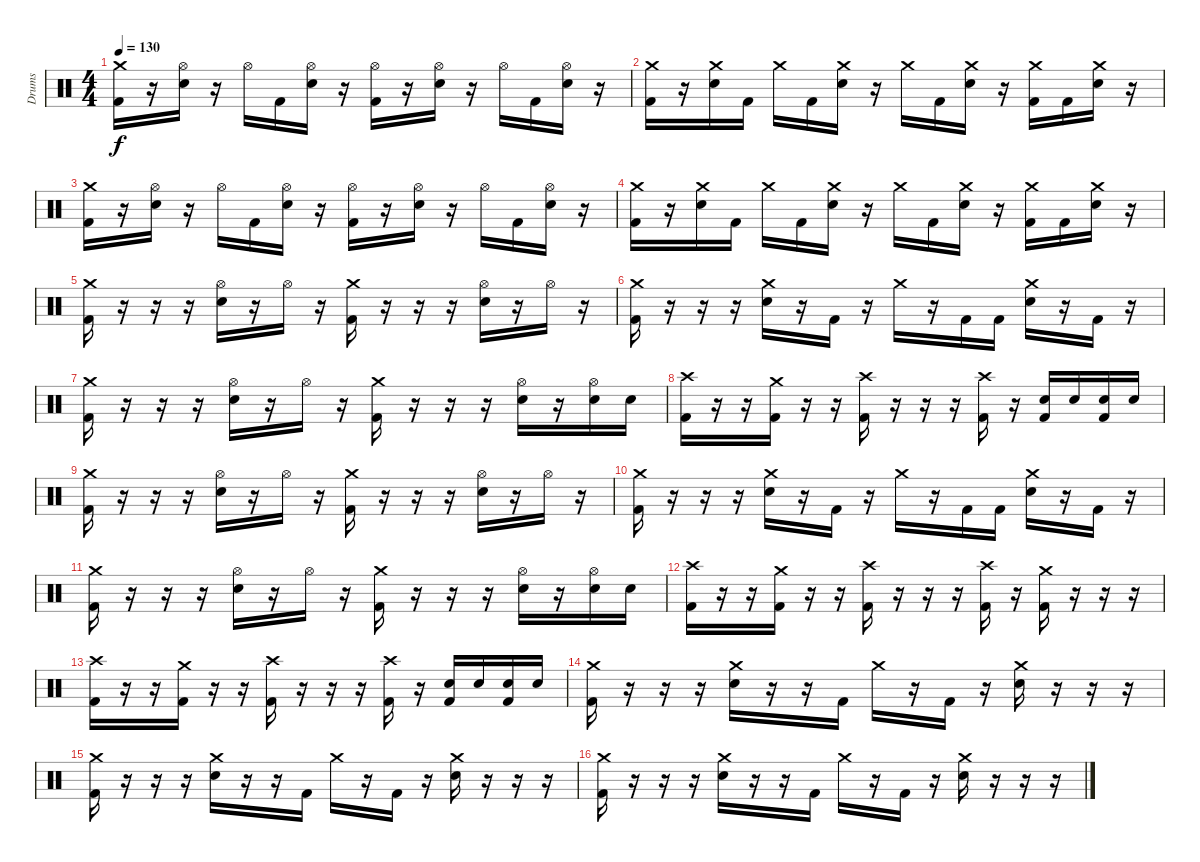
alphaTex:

\track ("Drums" "Drums") {instrument percussion}
\staff {score}
\articulation defaults
\ts (4 4)
\tempo 130
\clef neutral
\ks c
("Crash medium (hit)" "Kick (hit) 2").16{dy f} r.16 ("Hi-Hat (open)" "Electric Snare (hit)").16 r.16 "Hi-Hat (open)".16 "Kick (hit) 2".16 ("Hi-Hat (open)" "Electric Snare (hit)").16 r.16 ("Hi-Hat (open)" "Kick (hit) 2").16 r.16 ("Hi-Hat (open)" "Electric Snare (hit)").16 r.16 "Hi-Hat (open)".16 "Kick (hit) 2".16 ("Hi-Hat (open)" "Electric Snare (hit)").16 r.16 |
("Crash medium (hit)" "Kick (hit) 2").16 r.16 ("Crash medium (hit)" "Electric Snare (hit)").16 "Kick (hit) 2".16 "Crash medium (hit)".16 "Kick (hit) 2".16 ("Crash medium (hit)" "Electric Snare (hit)").16 r.16 "Crash medium (hit)".16 "Kick (hit) 2".16 ("Crash medium (hit)" "Electric Snare (hit)").16 r.16 ("Crash medium (hit)" "Kick (hit) 2").16 "Kick (hit) 2".16 ("Crash medium (hit)" "Electric Snare (hit)").16 r.16 |
("Crash medium (hit)" "Kick (hit) 2").16 r.16 ("Hi-Hat (open)" "Electric Snare (hit)").16 r.16 "Hi-Hat (open)".16 "Kick (hit) 2".16 ("Hi-Hat (open)" "Electric Snare (hit)").16 r.16 ("Hi-Hat (open)" "Kick (hit) 2").16 r.16 ("Hi-Hat (open)" "Electric Snare (hit)").16 r.16 "Hi-Hat (open)".16 "Kick (hit) 2".16 ("Hi-Hat (open)" "Electric Snare (hit)").16 r.16 |
("Crash medium (hit)" "Kick (hit) 2").16 r.16 ("Crash medium (hit)" "Electric Snare (hit)").16 "Kick (hit) 2".16 "Crash medium (hit)".16 "Kick (hit) 2".16 ("Crash medium (hit)" "Electric Snare (hit)").16 r.16 "Crash medium (hit)".16 "Kick (hit) 2".16 ("Crash medium (hit)" "Electric Snare (hit)").16 r.16 ("Crash medium (hit)" "Kick (hit) 2").16 "Kick (hit) 2".16 ("Crash medium (hit)" "Electric Snare (hit)").16 r.16 |
("Crash medium (hit)" "Kick (hit) 2").16 r.16 r.16 r.16 ("Hi-Hat (open)" "Electric Snare (hit)").16 r.16 "Hi-Hat (open)".16 r.16 ("Crash medium (hit)" "Kick (hit) 2").16 r.16 r.16 r.16 ("Hi-Hat (open)" "Electric Snare (hit)").16 r.16 "Hi-Hat (open)".16 r.16 |
("Crash medium (hit)" "Kick (hit) 2").16 r.16 r.16 r.16 ("Crash medium (hit)" "Electric Snare (hit)").16 r.16 "Kick (hit) 2".16 r.16 "Crash medium (hit)".16 r.16 "Kick (hit) 2".16 "Kick (hit) 2".16 ("Crash medium (hit)" "Electric Snare (hit)").16 r.16 "Kick (hit) 2".16 r.16 |
("Crash medium (hit)" "Kick (hit) 2").16 r.16 r.16 r.16 ("Hi-Hat (open)" "Electric Snare (hit)").16 r.16 "Hi-Hat (open)".16 r.16 ("Crash medium (hit)" "Kick (hit) 2").16 r.16 r.16 r.16 ("Hi-Hat (open)" "Electric Snare (hit)").16 r.16 ("Hi-Hat (open)" "Electric Snare (hit)").16 "Electric Snare (hit)".16 |
("Crash high (hit)" "Kick (hit) 2").16 r.16 r.16 ("Crash medium (hit)" "Kick (hit) 2").16 r.16 r.16 ("Crash high (hit)" "Kick (hit) 2").16 r.16 r.16 r.16 ("Crash high (hit)" "Kick (hit) 2").16 r.16 ("Electric Snare (hit)" "Kick (hit) 2").16 "Electric Snare (hit)".16 ("Electric Snare (hit)" "Kick (hit) 2").16 "Electric Snare (hit)".16 |
("Crash medium (hit)" "Kick (hit) 2").16 r.16 r.16 r.16 ("Hi-Hat (open)" "Electric Snare (hit)").16 r.16 "Hi-Hat (open)".16 r.16 ("Crash medium (hit)" "Kick (hit) 2").16 r.16 r.16 r.16 ("Hi-Hat (open)" "Electric Snare (hit)").16 r.16 "Hi-Hat (open)".16 r.16 |
("Crash medium (hit)" "Kick (hit) 2").16 r.16 r.16 r.16 ("Crash medium (hit)" "Electric Snare (hit)").16 r.16 "Kick (hit) 2".16 r.16 "Crash medium (hit)".16 r.16 "Kick (hit) 2".16 "Kick (hit) 2".16 ("Crash medium (hit)" "Electric Snare (hit)").16 r.16 "Kick (hit) 2".16 r.16 |
("Crash medium (hit)" "Kick (hit) 2").16 r.16 r.16 r.16 ("Hi-Hat (open)" "Electric Snare (hit)").16 r.16 "Hi-Hat (open)".16 r.16 ("Crash medium (hit)" "Kick (hit) 2").16 r.16 r.16 r.16 ("Hi-Hat (open)" "Electric Snare (hit)").16 r.16 ("Hi-Hat (open)" "Electric Snare (hit)").16 "Electric Snare (hit)".16 |
("Crash high (hit)" "Kick (hit) 2").16 r.16 r.16 ("Crash medium (hit)" "Kick (hit) 2").16 r.16 r.16 ("Crash high (hit)" "Kick (hit) 2").16 r.16 r.16 r.16 ("Crash high (hit)" "Kick (hit) 2").16 r.16 ("Crash medium (hit)" "Kick (hit) 2").16 r.16 r.16 r.16 |
("Crash high (hit)" "Kick (hit) 2").16 r.16 r.16 ("Crash medium (hit)" "Kick (hit) 2").16 r.16 r.16 ("Crash high (hit)" "Kick (hit) 2").16 r.16 r.16 r.16 ("Crash high (hit)" "Kick (hit) 2").16 r.16 ("Electric Snare (hit)" "Kick (hit) 2").16 "Electric Snare (hit)".16 ("Electric Snare (hit)" "Kick (hit) 2").16 "Electric Snare (hit)".16 |
("Crash medium (hit)" "Kick (hit) 2").16 r.16 r.16 r.16 ("Crash medium (hit)" "Electric Snare (hit)").16 r.16 r.16 "Kick (hit) 2".16 "Crash medium (hit)".16 r.16 "Kick (hit) 2".16 r.16 ("Crash medium (hit)" "Electric Snare (hit)").16 r.16 r.16 r.16 |
("Crash medium (hit)" "Kick (hit) 2").16 r.16 r.16 r.16 ("Crash medium (hit)" "Electric Snare (hit)").16 r.16 r.16 "Kick (hit) 2".16 "Crash medium (hit)".16 r.16 "Kick (hit) 2".16 r.16 ("Crash medium (hit)" "Electric Snare (hit)").16 r.16 r.16 r.16 |
("Crash medium (hit)" "Kick (hit) 2").16 r.16 r.16 r.16 ("Crash medium (hit)" "Electric Snare (hit)").16 r.16 r.16 "Kick (hit) 2".16 "Crash medium (hit)".16 r.16 "Kick (hit) 2".16 r.16 ("Crash medium (hit)" "Electric Snare (hit)").16 r.16 r.16 r.16
